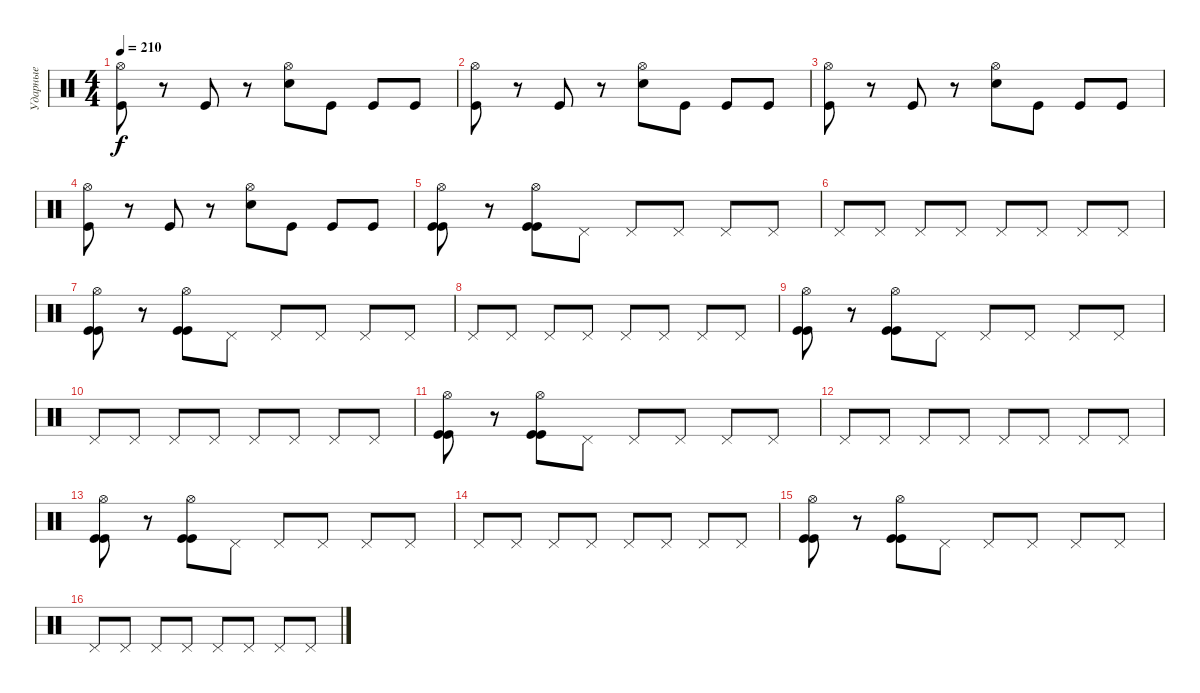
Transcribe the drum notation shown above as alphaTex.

\track ("Ударные" "Ударные") {instrument percussion}
\staff {score}
\articulation defaults
\ts (4 4)
\tempo 210
\clef neutral
\ks c
("Hi-Hat (open)" "Kick (hit)").8{dy f} r.8 "Kick (hit)".8 r.8 ("Hi-Hat (open)" "Electric Snare (hit)").8 "Kick (hit)".8 "Kick (hit)".8 "Kick (hit)".8 |
("Hi-Hat (open)" "Kick (hit)").8 r.8 "Kick (hit)".8 r.8 ("Hi-Hat (open)" "Electric Snare (hit)").8 "Kick (hit)".8 "Kick (hit)".8 "Kick (hit)".8 |
("Hi-Hat (open)" "Kick (hit)").8 r.8 "Kick (hit)".8 r.8 ("Hi-Hat (open)" "Electric Snare (hit)").8 "Kick (hit)".8 "Kick (hit)".8 "Kick (hit)".8 |
("Hi-Hat (open)" "Kick (hit)").8 r.8 "Kick (hit)".8 r.8 ("Hi-Hat (open)" "Electric Snare (hit)").8 "Kick (hit)".8 "Kick (hit)".8 "Kick (hit)".8 |
("Hi-Hat (open)" "Kick (hit)" "Kick (hit)").8 r.8 ("Hi-Hat (open)" "Kick (hit)" "Kick (hit)").8 "Pedal Hi-Hat (hit)".8 "Pedal Hi-Hat (hit)".8 "Pedal Hi-Hat (hit)".8 "Pedal Hi-Hat (hit)".8 "Pedal Hi-Hat (hit)".8 |
"Pedal Hi-Hat (hit)".8 "Pedal Hi-Hat (hit)".8 "Pedal Hi-Hat (hit)".8 "Pedal Hi-Hat (hit)".8 "Pedal Hi-Hat (hit)".8 "Pedal Hi-Hat (hit)".8 "Pedal Hi-Hat (hit)".8 "Pedal Hi-Hat (hit)".8 |
("Hi-Hat (open)" "Kick (hit)" "Kick (hit)").8 r.8 ("Hi-Hat (open)" "Kick (hit)" "Kick (hit)").8 "Pedal Hi-Hat (hit)".8 "Pedal Hi-Hat (hit)".8 "Pedal Hi-Hat (hit)".8 "Pedal Hi-Hat (hit)".8 "Pedal Hi-Hat (hit)".8 |
"Pedal Hi-Hat (hit)".8 "Pedal Hi-Hat (hit)".8 "Pedal Hi-Hat (hit)".8 "Pedal Hi-Hat (hit)".8 "Pedal Hi-Hat (hit)".8 "Pedal Hi-Hat (hit)".8 "Pedal Hi-Hat (hit)".8 "Pedal Hi-Hat (hit)".8 |
("Hi-Hat (open)" "Kick (hit)" "Kick (hit)").8 r.8 ("Hi-Hat (open)" "Kick (hit)" "Kick (hit)").8 "Pedal Hi-Hat (hit)".8 "Pedal Hi-Hat (hit)".8 "Pedal Hi-Hat (hit)".8 "Pedal Hi-Hat (hit)".8 "Pedal Hi-Hat (hit)".8 |
"Pedal Hi-Hat (hit)".8 "Pedal Hi-Hat (hit)".8 "Pedal Hi-Hat (hit)".8 "Pedal Hi-Hat (hit)".8 "Pedal Hi-Hat (hit)".8 "Pedal Hi-Hat (hit)".8 "Pedal Hi-Hat (hit)".8 "Pedal Hi-Hat (hit)".8 |
("Hi-Hat (open)" "Kick (hit)" "Kick (hit)").8 r.8 ("Hi-Hat (open)" "Kick (hit)" "Kick (hit)").8 "Pedal Hi-Hat (hit)".8 "Pedal Hi-Hat (hit)".8 "Pedal Hi-Hat (hit)".8 "Pedal Hi-Hat (hit)".8 "Pedal Hi-Hat (hit)".8 |
"Pedal Hi-Hat (hit)".8 "Pedal Hi-Hat (hit)".8 "Pedal Hi-Hat (hit)".8 "Pedal Hi-Hat (hit)".8 "Pedal Hi-Hat (hit)".8 "Pedal Hi-Hat (hit)".8 "Pedal Hi-Hat (hit)".8 "Pedal Hi-Hat (hit)".8 |
("Hi-Hat (open)" "Kick (hit)" "Kick (hit)").8 r.8 ("Hi-Hat (open)" "Kick (hit)" "Kick (hit)").8 "Pedal Hi-Hat (hit)".8 "Pedal Hi-Hat (hit)".8 "Pedal Hi-Hat (hit)".8 "Pedal Hi-Hat (hit)".8 "Pedal Hi-Hat (hit)".8 |
"Pedal Hi-Hat (hit)".8 "Pedal Hi-Hat (hit)".8 "Pedal Hi-Hat (hit)".8 "Pedal Hi-Hat (hit)".8 "Pedal Hi-Hat (hit)".8 "Pedal Hi-Hat (hit)".8 "Pedal Hi-Hat (hit)".8 "Pedal Hi-Hat (hit)".8 |
("Hi-Hat (open)" "Kick (hit)" "Kick (hit)").8 r.8 ("Hi-Hat (open)" "Kick (hit)" "Kick (hit)").8 "Pedal Hi-Hat (hit)".8 "Pedal Hi-Hat (hit)".8 "Pedal Hi-Hat (hit)".8 "Pedal Hi-Hat (hit)".8 "Pedal Hi-Hat (hit)".8 |
"Pedal Hi-Hat (hit)".8 "Pedal Hi-Hat (hit)".8 "Pedal Hi-Hat (hit)".8 "Pedal Hi-Hat (hit)".8 "Pedal Hi-Hat (hit)".8 "Pedal Hi-Hat (hit)".8 "Pedal Hi-Hat (hit)".8 "Pedal Hi-Hat (hit)".8
